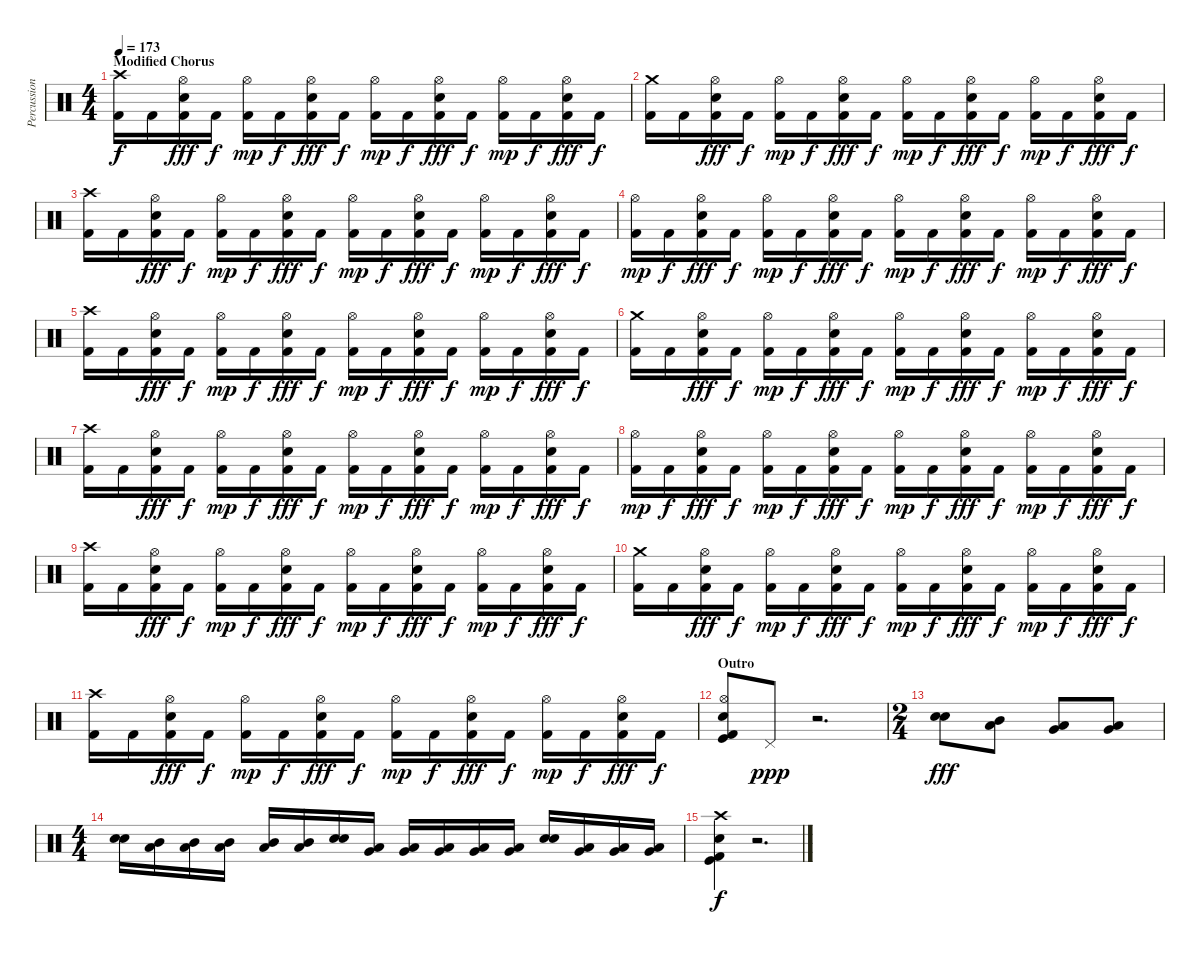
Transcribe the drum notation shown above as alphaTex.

\track ("Percussion" "Percussion") {instrument percussion}
\staff {score}
\articulation defaults
\ts (4 4)
\section ("" "Modified Chorus")
\tempo 173
\clef neutral
\ks c
("Crash high (hit)" "Kick (hit) 2").16{dy f} "Kick (hit) 2".16 ("Hi-Hat (open)" "Snare (hit) 2" "Kick (hit) 2").16{dy fff} "Kick (hit) 2".16{dy f} ("Hi-Hat (open)" "Kick (hit) 2").16{dy mp} "Kick (hit) 2".16{dy f} ("Hi-Hat (open)" "Snare (hit) 2" "Kick (hit) 2").16{dy fff} "Kick (hit) 2".16{dy f} ("Hi-Hat (open)" "Kick (hit) 2").16{dy mp} "Kick (hit) 2".16{dy f} ("Hi-Hat (open)" "Snare (hit) 2" "Kick (hit) 2").16{dy fff} "Kick (hit) 2".16{dy f} ("Hi-Hat (open)" "Kick (hit) 2").16{dy mp} "Kick (hit) 2".16{dy f} ("Hi-Hat (open)" "Snare (hit) 2" "Kick (hit) 2").16{dy fff} "Kick (hit) 2".16{dy f} |
("Crash medium (hit)" "Kick (hit) 2").16 "Kick (hit) 2".16 ("Hi-Hat (open)" "Snare (hit) 2" "Kick (hit) 2").16{dy fff} "Kick (hit) 2".16{dy f} ("Hi-Hat (open)" "Kick (hit) 2").16{dy mp} "Kick (hit) 2".16{dy f} ("Hi-Hat (open)" "Snare (hit) 2" "Kick (hit) 2").16{dy fff} "Kick (hit) 2".16{dy f} ("Hi-Hat (open)" "Kick (hit) 2").16{dy mp} "Kick (hit) 2".16{dy f} ("Hi-Hat (open)" "Snare (hit) 2" "Kick (hit) 2").16{dy fff} "Kick (hit) 2".16{dy f} ("Hi-Hat (open)" "Kick (hit) 2").16{dy mp} "Kick (hit) 2".16{dy f} ("Hi-Hat (open)" "Snare (hit) 2" "Kick (hit) 2").16{dy fff} "Kick (hit) 2".16{dy f} |
("Crash high (hit)" "Kick (hit) 2").16 "Kick (hit) 2".16 ("Hi-Hat (open)" "Snare (hit) 2" "Kick (hit) 2").16{dy fff} "Kick (hit) 2".16{dy f} ("Hi-Hat (open)" "Kick (hit) 2").16{dy mp} "Kick (hit) 2".16{dy f} ("Hi-Hat (open)" "Snare (hit) 2" "Kick (hit) 2").16{dy fff} "Kick (hit) 2".16{dy f} ("Hi-Hat (open)" "Kick (hit) 2").16{dy mp} "Kick (hit) 2".16{dy f} ("Hi-Hat (open)" "Snare (hit) 2" "Kick (hit) 2").16{dy fff} "Kick (hit) 2".16{dy f} ("Hi-Hat (open)" "Kick (hit) 2").16{dy mp} "Kick (hit) 2".16{dy f} ("Hi-Hat (open)" "Snare (hit) 2" "Kick (hit) 2").16{dy fff} "Kick (hit) 2".16{dy f} |
("Hi-Hat (open)" "Kick (hit) 2").16{dy mp} "Kick (hit) 2".16{dy f} ("Hi-Hat (open)" "Snare (hit) 2" "Kick (hit) 2").16{dy fff} "Kick (hit) 2".16{dy f} ("Hi-Hat (open)" "Kick (hit) 2").16{dy mp} "Kick (hit) 2".16{dy f} ("Hi-Hat (open)" "Snare (hit) 2" "Kick (hit) 2").16{dy fff} "Kick (hit) 2".16{dy f} ("Hi-Hat (open)" "Kick (hit) 2").16{dy mp} "Kick (hit) 2".16{dy f} ("Hi-Hat (open)" "Snare (hit) 2" "Kick (hit) 2").16{dy fff} "Kick (hit) 2".16{dy f} ("Hi-Hat (open)" "Kick (hit) 2").16{dy mp} "Kick (hit) 2".16{dy f} ("Hi-Hat (open)" "Snare (hit) 2" "Kick (hit) 2").16{dy fff} "Kick (hit) 2".16{dy f} |
("Crash high (hit)" "Kick (hit) 2").16 "Kick (hit) 2".16 ("Hi-Hat (open)" "Snare (hit) 2" "Kick (hit) 2").16{dy fff} "Kick (hit) 2".16{dy f} ("Hi-Hat (open)" "Kick (hit) 2").16{dy mp} "Kick (hit) 2".16{dy f} ("Hi-Hat (open)" "Snare (hit) 2" "Kick (hit) 2").16{dy fff} "Kick (hit) 2".16{dy f} ("Hi-Hat (open)" "Kick (hit) 2").16{dy mp} "Kick (hit) 2".16{dy f} ("Hi-Hat (open)" "Snare (hit) 2" "Kick (hit) 2").16{dy fff} "Kick (hit) 2".16{dy f} ("Hi-Hat (open)" "Kick (hit) 2").16{dy mp} "Kick (hit) 2".16{dy f} ("Hi-Hat (open)" "Snare (hit) 2" "Kick (hit) 2").16{dy fff} "Kick (hit) 2".16{dy f} |
("Crash medium (hit)" "Kick (hit) 2").16 "Kick (hit) 2".16 ("Hi-Hat (open)" "Snare (hit) 2" "Kick (hit) 2").16{dy fff} "Kick (hit) 2".16{dy f} ("Hi-Hat (open)" "Kick (hit) 2").16{dy mp} "Kick (hit) 2".16{dy f} ("Hi-Hat (open)" "Snare (hit) 2" "Kick (hit) 2").16{dy fff} "Kick (hit) 2".16{dy f} ("Hi-Hat (open)" "Kick (hit) 2").16{dy mp} "Kick (hit) 2".16{dy f} ("Hi-Hat (open)" "Snare (hit) 2" "Kick (hit) 2").16{dy fff} "Kick (hit) 2".16{dy f} ("Hi-Hat (open)" "Kick (hit) 2").16{dy mp} "Kick (hit) 2".16{dy f} ("Hi-Hat (open)" "Snare (hit) 2" "Kick (hit) 2").16{dy fff} "Kick (hit) 2".16{dy f} |
("Crash high (hit)" "Kick (hit) 2").16 "Kick (hit) 2".16 ("Hi-Hat (open)" "Snare (hit) 2" "Kick (hit) 2").16{dy fff} "Kick (hit) 2".16{dy f} ("Hi-Hat (open)" "Kick (hit) 2").16{dy mp} "Kick (hit) 2".16{dy f} ("Hi-Hat (open)" "Snare (hit) 2" "Kick (hit) 2").16{dy fff} "Kick (hit) 2".16{dy f} ("Hi-Hat (open)" "Kick (hit) 2").16{dy mp} "Kick (hit) 2".16{dy f} ("Hi-Hat (open)" "Snare (hit) 2" "Kick (hit) 2").16{dy fff} "Kick (hit) 2".16{dy f} ("Hi-Hat (open)" "Kick (hit) 2").16{dy mp} "Kick (hit) 2".16{dy f} ("Hi-Hat (open)" "Snare (hit) 2" "Kick (hit) 2").16{dy fff} "Kick (hit) 2".16{dy f} |
("Hi-Hat (open)" "Kick (hit) 2").16{dy mp} "Kick (hit) 2".16{dy f} ("Hi-Hat (open)" "Snare (hit) 2" "Kick (hit) 2").16{dy fff} "Kick (hit) 2".16{dy f} ("Hi-Hat (open)" "Kick (hit) 2").16{dy mp} "Kick (hit) 2".16{dy f} ("Hi-Hat (open)" "Snare (hit) 2" "Kick (hit) 2").16{dy fff} "Kick (hit) 2".16{dy f} ("Hi-Hat (open)" "Kick (hit) 2").16{dy mp} "Kick (hit) 2".16{dy f} ("Hi-Hat (open)" "Snare (hit) 2" "Kick (hit) 2").16{dy fff} "Kick (hit) 2".16{dy f} ("Hi-Hat (open)" "Kick (hit) 2").16{dy mp} "Kick (hit) 2".16{dy f} ("Hi-Hat (open)" "Snare (hit) 2" "Kick (hit) 2").16{dy fff} "Kick (hit) 2".16{dy f} |
("Crash high (hit)" "Kick (hit) 2").16 "Kick (hit) 2".16 ("Hi-Hat (open)" "Snare (hit) 2" "Kick (hit) 2").16{dy fff} "Kick (hit) 2".16{dy f} ("Hi-Hat (open)" "Kick (hit) 2").16{dy mp} "Kick (hit) 2".16{dy f} ("Hi-Hat (open)" "Snare (hit) 2" "Kick (hit) 2").16{dy fff} "Kick (hit) 2".16{dy f} ("Hi-Hat (open)" "Kick (hit) 2").16{dy mp} "Kick (hit) 2".16{dy f} ("Hi-Hat (open)" "Snare (hit) 2" "Kick (hit) 2").16{dy fff} "Kick (hit) 2".16{dy f} ("Hi-Hat (open)" "Kick (hit) 2").16{dy mp} "Kick (hit) 2".16{dy f} ("Hi-Hat (open)" "Snare (hit) 2" "Kick (hit) 2").16{dy fff} "Kick (hit) 2".16{dy f} |
("Crash medium (hit)" "Kick (hit) 2").16 "Kick (hit) 2".16 ("Hi-Hat (open)" "Snare (hit) 2" "Kick (hit) 2").16{dy fff} "Kick (hit) 2".16{dy f} ("Hi-Hat (open)" "Kick (hit) 2").16{dy mp} "Kick (hit) 2".16{dy f} ("Hi-Hat (open)" "Snare (hit) 2" "Kick (hit) 2").16{dy fff} "Kick (hit) 2".16{dy f} ("Hi-Hat (open)" "Kick (hit) 2").16{dy mp} "Kick (hit) 2".16{dy f} ("Hi-Hat (open)" "Snare (hit) 2" "Kick (hit) 2").16{dy fff} "Kick (hit) 2".16{dy f} ("Hi-Hat (open)" "Kick (hit) 2").16{dy mp} "Kick (hit) 2".16{dy f} ("Hi-Hat (open)" "Snare (hit) 2" "Kick (hit) 2").16{dy fff} "Kick (hit) 2".16{dy f} |
("Crash high (hit)" "Kick (hit) 2").16 "Kick (hit) 2".16 ("Hi-Hat (open)" "Snare (hit) 2" "Kick (hit) 2").16{dy fff} "Kick (hit) 2".16{dy f} ("Hi-Hat (open)" "Kick (hit) 2").16{dy mp} "Kick (hit) 2".16{dy f} ("Hi-Hat (open)" "Snare (hit) 2" "Kick (hit) 2").16{dy fff} "Kick (hit) 2".16{dy f} ("Hi-Hat (open)" "Kick (hit) 2").16{dy mp} "Kick (hit) 2".16{dy f} ("Hi-Hat (open)" "Snare (hit) 2" "Kick (hit) 2").16{dy fff} "Kick (hit) 2".16{dy f} ("Hi-Hat (open)" "Kick (hit) 2").16{dy mp} "Kick (hit) 2".16{dy f} ("Hi-Hat (open)" "Snare (hit) 2" "Kick (hit) 2").16{dy fff} "Kick (hit) 2".16{dy f} |
\section ("" "Outro")
("Hi-Hat (open)" "Snare (hit) 2" "Kick (hit)" "Kick (hit) 2").8 "Pedal Hi-Hat (hit)".8{dy ppp} r.2{d} |
\ts (2 4)
("Snare (hit) 2" "Snare (hit) 2").8{dy fff} ("Low Tom (hit)" "Mid Tom (hit)").8 ("Very Low Tom (hit)" "Low Tom (hit)").8 ("Very Low Tom (hit)" "Low Tom (hit)").8 |
\ts (4 4)
("Snare (hit) 2" "Snare (hit) 2").16 ("Low Tom (hit)" "Mid Tom (hit)").16 ("Low Tom (hit)" "Mid Tom (hit)").16 ("Low Tom (hit)" "Mid Tom (hit)").16 ("Low Tom (hit)" "Mid Tom (hit)").16 ("Low Tom (hit)" "Mid Tom (hit)").16 ("Snare (hit) 2" "Snare (hit) 2").16 ("Very Low Tom (hit)" "Low Tom (hit)").16 ("Very Low Tom (hit)" "Low Tom (hit)").16 ("Very Low Tom (hit)" "Low Tom (hit)").16 ("Very Low Tom (hit)" "Low Tom (hit)").16 ("Very Low Tom (hit)" "Low Tom (hit)").16 ("Snare (hit) 2" "Snare (hit) 2").16 ("Low Floor Tom (hit)" "Very Low Tom (hit)").16 ("Low Floor Tom (hit)" "Very Low Tom (hit)").16 ("Low Floor Tom (hit)" "Very Low Tom (hit)").16 |
("Crash high (hit)" "Snare (hit) 2" "Kick (hit)" "Kick (hit) 2").4{dy f} r.2{d}
